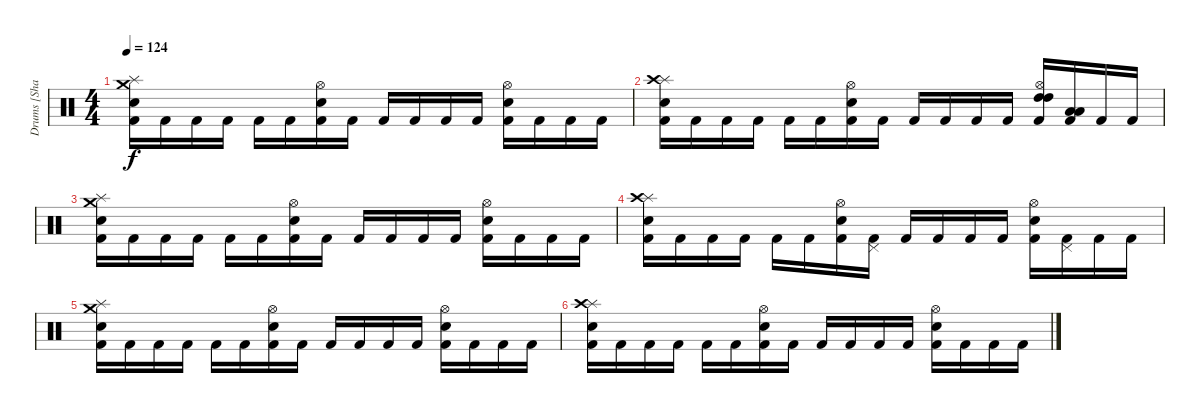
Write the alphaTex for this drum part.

\track ("Drums [Shawn Drover]" "Drums [Sha") {instrument percussion}
\staff {score}
\articulation defaults
\ts (4 4)
\tempo 124
\clef neutral
\ks c
("Splash (hit)" "Crash medium (hit)" "Electric Snare (hit)" "Kick (hit) 2").16{dy f} "Kick (hit) 2".16 "Kick (hit) 2".16 "Kick (hit) 2".16 "Kick (hit) 2".16 "Kick (hit) 2".16 ("Hi-Hat (open)" "Electric Snare (hit)" "Kick (hit) 2").16 "Kick (hit) 2".16 "Kick (hit) 2".16 "Kick (hit) 2".16 "Kick (hit) 2".16 "Kick (hit) 2".16 ("Hi-Hat (open)" "Electric Snare (hit)" "Kick (hit) 2").16 "Kick (hit) 2".16 "Kick (hit) 2".16 "Kick (hit) 2".16 |
("Splash (hit)" "Crash high (hit)" "Electric Snare (hit)" "Kick (hit) 2").16 "Kick (hit) 2".16 "Kick (hit) 2".16 "Kick (hit) 2".16 "Kick (hit) 2".16 "Kick (hit) 2".16 ("Hi-Hat (open)" "Electric Snare (hit)" "Kick (hit) 2").16 "Kick (hit) 2".16 "Kick (hit) 2".16 "Kick (hit) 2".16 "Kick (hit) 2".16 "Kick (hit) 2".16 ("Hi-Hat (open)" "High Tom (hit)" "High Tom (hit)" "Kick (hit) 2").16 ("Low Tom (hit)" "Low Tom (hit)" "Kick (hit) 2").16 "Kick (hit) 2".16 "Kick (hit) 2".16 |
("Splash (hit)" "Crash medium (hit)" "Electric Snare (hit)" "Kick (hit) 2").16 "Kick (hit) 2".16 "Kick (hit) 2".16 "Kick (hit) 2".16 "Kick (hit) 2".16 "Kick (hit) 2".16 ("Hi-Hat (open)" "Electric Snare (hit)" "Kick (hit) 2").16 "Kick (hit) 2".16 "Kick (hit) 2".16 "Kick (hit) 2".16 "Kick (hit) 2".16 "Kick (hit) 2".16 ("Hi-Hat (open)" "Electric Snare (hit)" "Kick (hit) 2").16 "Kick (hit) 2".16 "Kick (hit) 2".16 "Kick (hit) 2".16 |
("Splash (hit)" "Crash high (hit)" "Electric Snare (hit)" "Kick (hit) 2").16 "Kick (hit) 2".16 "Kick (hit) 2".16 "Kick (hit) 2".16 "Kick (hit) 2".16 "Kick (hit) 2".16 ("Hi-Hat (open)" "Electric Snare (hit)" "Kick (hit) 2").16 ("Pedal Hi-Hat (hit)" "Kick (hit) 2").16 "Kick (hit) 2".16 "Kick (hit) 2".16 "Kick (hit) 2".16 "Kick (hit) 2".16 ("Hi-Hat (open)" "Electric Snare (hit)" "Kick (hit) 2").16 ("Pedal Hi-Hat (hit)" "Kick (hit) 2").16 "Kick (hit) 2".16 "Kick (hit) 2".16 |
("Splash (hit)" "Crash medium (hit)" "Electric Snare (hit)" "Kick (hit) 2").16 "Kick (hit) 2".16 "Kick (hit) 2".16 "Kick (hit) 2".16 "Kick (hit) 2".16 "Kick (hit) 2".16 ("Hi-Hat (open)" "Electric Snare (hit)" "Kick (hit) 2").16 "Kick (hit) 2".16 "Kick (hit) 2".16 "Kick (hit) 2".16 "Kick (hit) 2".16 "Kick (hit) 2".16 ("Hi-Hat (open)" "Electric Snare (hit)" "Kick (hit) 2").16 "Kick (hit) 2".16 "Kick (hit) 2".16 "Kick (hit) 2".16 |
("Splash (hit)" "Crash high (hit)" "Electric Snare (hit)" "Kick (hit) 2").16 "Kick (hit) 2".16 "Kick (hit) 2".16 "Kick (hit) 2".16 "Kick (hit) 2".16 "Kick (hit) 2".16 ("Hi-Hat (open)" "Electric Snare (hit)" "Kick (hit) 2").16 "Kick (hit) 2".16 "Kick (hit) 2".16 "Kick (hit) 2".16 "Kick (hit) 2".16 "Kick (hit) 2".16 ("Hi-Hat (open)" "Electric Snare (hit)" "Kick (hit) 2").16 "Kick (hit) 2".16 "Kick (hit) 2".16 "Kick (hit) 2".16
